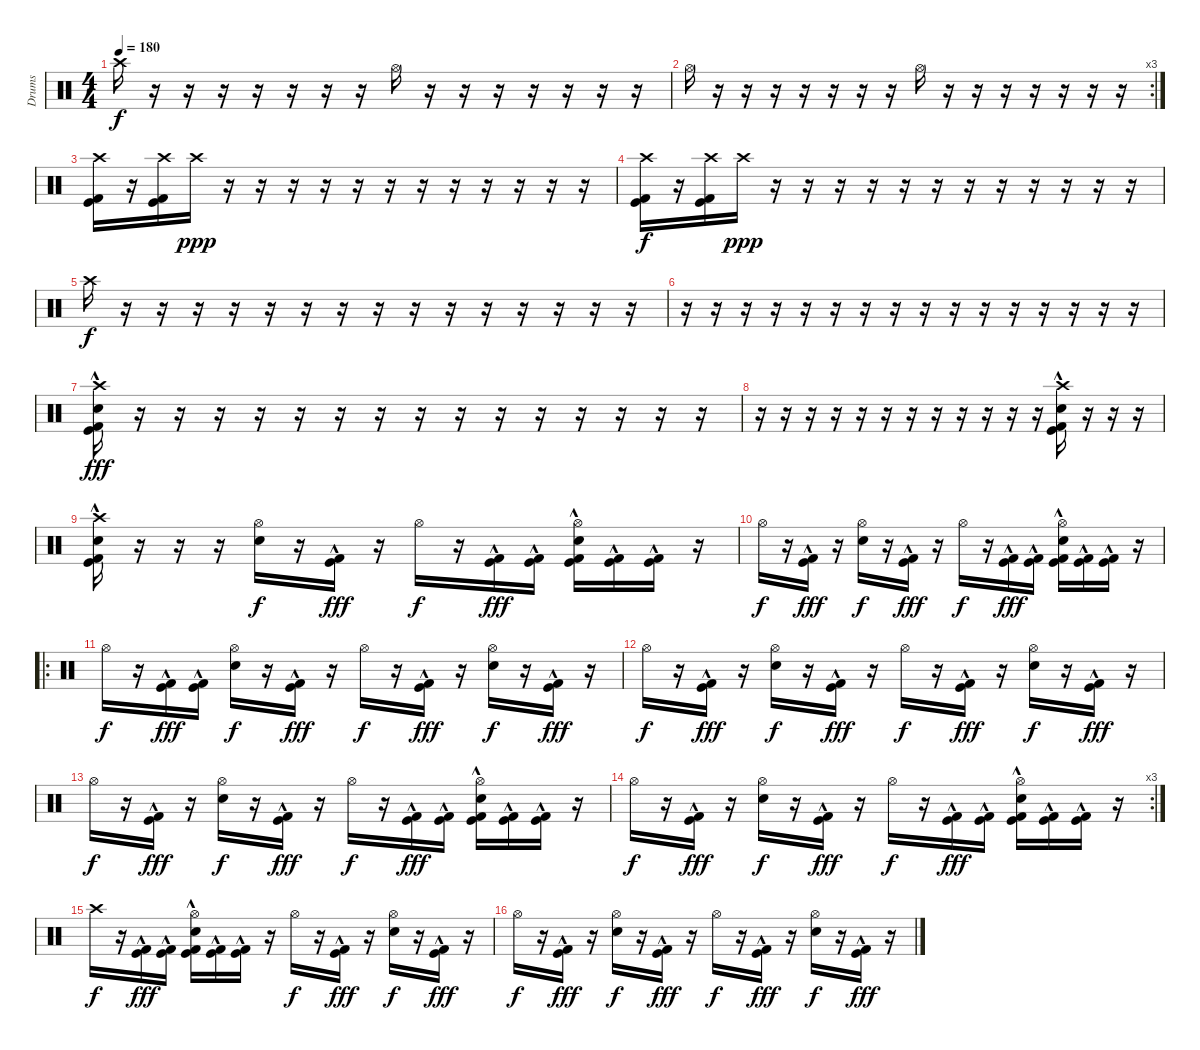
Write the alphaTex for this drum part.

\track ("Drums" "Drums") {instrument percussion}
\staff {score}
\articulation defaults
\ts (4 4)
\tempo 180
\clef neutral
\ks c "Crash high (hit)".16{dy f}
r.16 r.16 r.16 r.16 r.16 r.16 r.16 "Hi-Hat (open)".16 r.16 r.16 r.16 r.16 r.16 r.16 r.16 |
\rc 3 "Hi-Hat (open)".16
r.16 r.16 r.16 r.16 r.16 r.16 r.16 "Hi-Hat (open)".16 r.16 r.16 r.16 r.16 r.16 r.16 r.16 |
("Crash high (hit)" "Kick (hit)" "Kick (hit) 2").16 r.16 ("Crash high (hit)" "Kick (hit)" "Kick (hit) 2").16 "Crash high (hit)".16{dy ppp} r.16 r.16 r.16 r.16 r.16 r.16 r.16 r.16 r.16 r.16 r.16 r.16 |
("Crash high (hit)" "Kick (hit)" "Kick (hit) 2").16{dy f} r.16 ("Crash high (hit)" "Kick (hit)" "Kick (hit) 2").16 "Crash high (hit)".16{dy ppp} r.16 r.16 r.16 r.16 r.16 r.16 r.16 r.16 r.16 r.16 r.16 r.16 |
"Crash high (hit)".16{dy f} r.16 r.16 r.16 r.16 r.16 r.16 r.16 r.16 r.16 r.16 r.16 r.16 r.16 r.16 r.16 |
r.16 r.16 r.16 r.16 r.16 r.16 r.16 r.16 r.16 r.16 r.16 r.16 r.16 r.16 r.16 r.16 |
("Crash high (hit)" "Snare (hit) 2" "Kick (hit)"{hac} "Kick (hit) 2"{hac}).16{dy fff} r.16 r.16 r.16 r.16 r.16 r.16 r.16 r.16 r.16 r.16 r.16 r.16 r.16 r.16 r.16 |
r.16 r.16 r.16 r.16 r.16 r.16 r.16 r.16 r.16 r.16 r.16 r.16 ("Crash high (hit)" "Snare (hit) 2" "Kick (hit)"{hac} "Kick (hit) 2"{hac}).16 r.16 r.16 r.16 |
("Crash high (hit)" "Snare (hit) 2" "Kick (hit)"{hac} "Kick (hit) 2"{hac}).16 r.16 r.16 r.16 ("Hi-Hat (open)" "Snare (hit) 2").16{dy f} r.16 ("Kick (hit)"{hac} "Kick (hit) 2"{hac}).16{dy fff} r.16 "Hi-Hat (open)".16{dy f} r.16 ("Kick (hit)"{hac} "Kick (hit) 2"{hac}).16{dy fff} ("Kick (hit)"{hac} "Kick (hit) 2"{hac}).16 ("Hi-Hat (open)" "Snare (hit) 2" "Kick (hit)"{hac} "Kick (hit) 2"{hac}).16 ("Kick (hit)"{hac} "Kick (hit) 2"{hac}).16 ("Kick (hit)"{hac} "Kick (hit) 2"{hac}).16 r.16 |
"Hi-Hat (open)".16{dy f} r.16 ("Kick (hit)"{hac} "Kick (hit) 2"{hac}).16{dy fff} r.16 ("Hi-Hat (open)" "Snare (hit) 2").16{dy f} r.16 ("Kick (hit)"{hac} "Kick (hit) 2"{hac}).16{dy fff} r.16 "Hi-Hat (open)".16{dy f} r.16 ("Kick (hit)"{hac} "Kick (hit) 2"{hac}).16{dy fff} ("Kick (hit)"{hac} "Kick (hit) 2"{hac}).16 ("Hi-Hat (open)" "Snare (hit) 2" "Kick (hit)"{hac} "Kick (hit) 2"{hac}).16 ("Kick (hit)"{hac} "Kick (hit) 2"{hac}).16 ("Kick (hit)"{hac} "Kick (hit) 2"{hac}).16 r.16 |
\ro "Hi-Hat (open)".16{dy f}
r.16 ("Kick (hit)"{hac} "Kick (hit) 2"{hac}).16{dy fff} ("Kick (hit)"{hac} "Kick (hit) 2"{hac}).16 ("Hi-Hat (open)" "Snare (hit) 2").16{dy f} r.16 ("Kick (hit)"{hac} "Kick (hit) 2"{hac}).16{dy fff} r.16 "Hi-Hat (open)".16{dy f} r.16 ("Kick (hit)"{hac} "Kick (hit) 2"{hac}).16{dy fff} r.16 ("Hi-Hat (open)" "Snare (hit) 2").16{dy f} r.16 ("Kick (hit)"{hac} "Kick (hit) 2"{hac}).16{dy fff} r.16 |
"Hi-Hat (open)".16{dy f} r.16 ("Kick (hit)"{hac} "Kick (hit) 2"{hac}).16{dy fff} r.16 ("Hi-Hat (open)" "Snare (hit) 2").16{dy f} r.16 ("Kick (hit)"{hac} "Kick (hit) 2"{hac}).16{dy fff} r.16 "Hi-Hat (open)".16{dy f} r.16 ("Kick (hit)"{hac} "Kick (hit) 2"{hac}).16{dy fff} r.16 ("Hi-Hat (open)" "Snare (hit) 2").16{dy f} r.16 ("Kick (hit)"{hac} "Kick (hit) 2"{hac}).16{dy fff} r.16 |
"Hi-Hat (open)".16{dy f} r.16 ("Kick (hit)"{hac} "Kick (hit) 2"{hac}).16{dy fff} r.16 ("Hi-Hat (open)" "Snare (hit) 2").16{dy f} r.16 ("Kick (hit)"{hac} "Kick (hit) 2"{hac}).16{dy fff} r.16 "Hi-Hat (open)".16{dy f} r.16 ("Kick (hit)"{hac} "Kick (hit) 2"{hac}).16{dy fff} ("Kick (hit)"{hac} "Kick (hit) 2"{hac}).16 ("Hi-Hat (open)" "Snare (hit) 2" "Kick (hit)"{hac} "Kick (hit) 2"{hac}).16 ("Kick (hit)"{hac} "Kick (hit) 2"{hac}).16 ("Kick (hit)"{hac} "Kick (hit) 2"{hac}).16 r.16 |
\rc 3 "Hi-Hat (open)".16{dy f}
r.16 ("Kick (hit)"{hac} "Kick (hit) 2"{hac}).16{dy fff} r.16 ("Hi-Hat (open)" "Snare (hit) 2").16{dy f} r.16 ("Kick (hit)"{hac} "Kick (hit) 2"{hac}).16{dy fff} r.16 "Hi-Hat (open)".16{dy f} r.16 ("Kick (hit)"{hac} "Kick (hit) 2"{hac}).16{dy fff} ("Kick (hit)"{hac} "Kick (hit) 2"{hac}).16 ("Hi-Hat (open)" "Snare (hit) 2" "Kick (hit)"{hac} "Kick (hit) 2"{hac}).16 ("Kick (hit)"{hac} "Kick (hit) 2"{hac}).16 ("Kick (hit)"{hac} "Kick (hit) 2"{hac}).16 r.16 |
"Crash high (hit)".16{dy f} r.16 ("Kick (hit)"{hac} "Kick (hit) 2"{hac}).16{dy fff} ("Kick (hit)"{hac} "Kick (hit) 2"{hac}).16 ("Hi-Hat (open)" "Snare (hit) 2" "Kick (hit)"{hac} "Kick (hit) 2"{hac}).16 ("Kick (hit)"{hac} "Kick (hit) 2"{hac}).16 ("Kick (hit)"{hac} "Kick (hit) 2"{hac}).16 r.16 "Hi-Hat (open)".16{dy f} r.16 ("Kick (hit)"{hac} "Kick (hit) 2"{hac}).16{dy fff} r.16 ("Hi-Hat (open)" "Snare (hit) 2").16{dy f} r.16 ("Kick (hit)"{hac} "Kick (hit) 2"{hac}).16{dy fff} r.16 |
"Hi-Hat (open)".16{dy f} r.16 ("Kick (hit)"{hac} "Kick (hit) 2"{hac}).16{dy fff} r.16 ("Hi-Hat (open)" "Snare (hit) 2").16{dy f} r.16 ("Kick (hit)"{hac} "Kick (hit) 2"{hac}).16{dy fff} r.16 "Hi-Hat (open)".16{dy f} r.16 ("Kick (hit)"{hac} "Kick (hit) 2"{hac}).16{dy fff} r.16 ("Hi-Hat (open)" "Snare (hit) 2").16{dy f} r.16 ("Kick (hit)"{hac} "Kick (hit) 2"{hac}).16{dy fff} r.16
